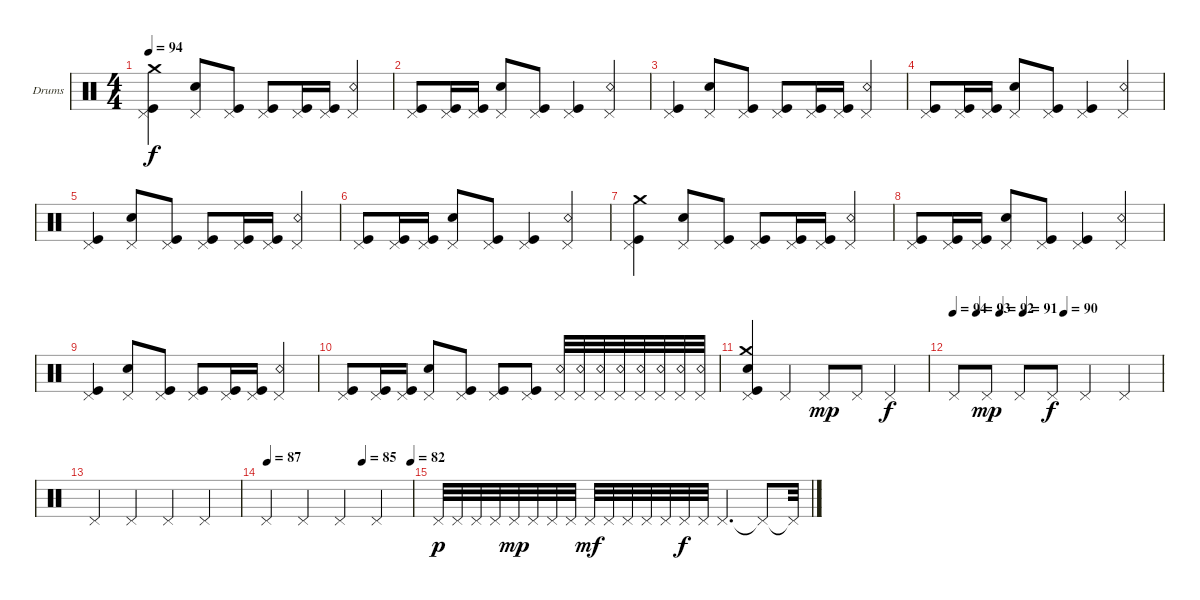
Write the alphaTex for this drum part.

\defaultSystemsLayout 4
\bracketExtendMode groupsimilarinstruments
\firstSystemTrackNameOrientation horizontal
\otherSystemsTrackNameOrientation horizontal
\track ("Е. Кулаков" "Drums") {instrument percussion}
\staff {score}
\articulation defaults
\ts (4 4)
\tempo 94
\clef neutral
\ks c
("Kick (hit)" "Pedal Hi-Hat (hit)" "Crash medium (hit)").4{dy f} ("Snare (hit) 2" "Pedal Hi-Hat (hit)").8 ("Kick (hit)" "Pedal Hi-Hat (hit)").8 ("Kick (hit)" "Pedal Hi-Hat (hit)").8 ("Kick (hit)" "Pedal Hi-Hat (hit)").16 ("Kick (hit)" "Pedal Hi-Hat (hit)").16 ("Snare (rim shot)" "Pedal Hi-Hat (hit)").4 |
("Kick (hit)" "Pedal Hi-Hat (hit)").8 ("Pedal Hi-Hat (hit)" "Kick (hit)").16 ("Pedal Hi-Hat (hit)" "Kick (hit)").16 ("Snare (hit) 2" "Pedal Hi-Hat (hit)").8 ("Kick (hit)" "Pedal Hi-Hat (hit)").8 ("Kick (hit)" "Pedal Hi-Hat (hit)").4 ("Snare (rim shot)" "Pedal Hi-Hat (hit)").4 |
("Kick (hit)" "Pedal Hi-Hat (hit)").4 ("Snare (hit) 2" "Pedal Hi-Hat (hit)").8 ("Kick (hit)" "Pedal Hi-Hat (hit)").8 ("Kick (hit)" "Pedal Hi-Hat (hit)").8 ("Kick (hit)" "Pedal Hi-Hat (hit)").16 ("Kick (hit)" "Pedal Hi-Hat (hit)").16 ("Snare (rim shot)" "Pedal Hi-Hat (hit)").4 |
("Kick (hit)" "Pedal Hi-Hat (hit)").8 ("Pedal Hi-Hat (hit)" "Kick (hit)").16 ("Pedal Hi-Hat (hit)" "Kick (hit)").16 ("Snare (hit) 2" "Pedal Hi-Hat (hit)").8 ("Kick (hit)" "Pedal Hi-Hat (hit)").8 ("Kick (hit)" "Pedal Hi-Hat (hit)").4 ("Snare (rim shot)" "Pedal Hi-Hat (hit)").4 |
("Kick (hit)" "Pedal Hi-Hat (hit)").4 ("Snare (hit) 2" "Pedal Hi-Hat (hit)").8 ("Kick (hit)" "Pedal Hi-Hat (hit)").8 ("Kick (hit)" "Pedal Hi-Hat (hit)").8 ("Kick (hit)" "Pedal Hi-Hat (hit)").16 ("Kick (hit)" "Pedal Hi-Hat (hit)").16 ("Snare (rim shot)" "Pedal Hi-Hat (hit)").4 |
("Kick (hit)" "Pedal Hi-Hat (hit)").8 ("Pedal Hi-Hat (hit)" "Kick (hit)").16 ("Pedal Hi-Hat (hit)" "Kick (hit)").16 ("Snare (hit) 2" "Pedal Hi-Hat (hit)").8 ("Kick (hit)" "Pedal Hi-Hat (hit)").8 ("Kick (hit)" "Pedal Hi-Hat (hit)").4 ("Snare (rim shot)" "Pedal Hi-Hat (hit)").4 |
("Kick (hit)" "Pedal Hi-Hat (hit)" "Crash medium (hit)").4 ("Snare (hit) 2" "Pedal Hi-Hat (hit)").8 ("Kick (hit)" "Pedal Hi-Hat (hit)").8 ("Kick (hit)" "Pedal Hi-Hat (hit)").8 ("Kick (hit)" "Pedal Hi-Hat (hit)").16 ("Kick (hit)" "Pedal Hi-Hat (hit)").16 ("Snare (rim shot)" "Pedal Hi-Hat (hit)").4 |
("Kick (hit)" "Pedal Hi-Hat (hit)").8 ("Pedal Hi-Hat (hit)" "Kick (hit)").16 ("Pedal Hi-Hat (hit)" "Kick (hit)").16 ("Snare (hit) 2" "Pedal Hi-Hat (hit)").8 ("Kick (hit)" "Pedal Hi-Hat (hit)").8 ("Kick (hit)" "Pedal Hi-Hat (hit)").4 ("Snare (rim shot)" "Pedal Hi-Hat (hit)").4 |
("Kick (hit)" "Pedal Hi-Hat (hit)").4 ("Snare (hit) 2" "Pedal Hi-Hat (hit)").8 ("Kick (hit)" "Pedal Hi-Hat (hit)").8 ("Kick (hit)" "Pedal Hi-Hat (hit)").8 ("Kick (hit)" "Pedal Hi-Hat (hit)").16 ("Kick (hit)" "Pedal Hi-Hat (hit)").16 ("Snare (rim shot)" "Pedal Hi-Hat (hit)").4 |
("Kick (hit)" "Pedal Hi-Hat (hit)").8 ("Pedal Hi-Hat (hit)" "Kick (hit)").16 ("Pedal Hi-Hat (hit)" "Kick (hit)").16 ("Snare (hit) 2" "Pedal Hi-Hat (hit)").8 ("Kick (hit)" "Pedal Hi-Hat (hit)").8 ("Kick (hit)" "Pedal Hi-Hat (hit)").8 ("Kick (hit)" "Pedal Hi-Hat (hit)").8 ("Snare (rim shot)" "Pedal Hi-Hat (hit)").32 ("Snare (rim shot)" "Pedal Hi-Hat (hit)").32 ("Snare (rim shot)" "Pedal Hi-Hat (hit)").32 ("Snare (rim shot)" "Pedal Hi-Hat (hit)").32 ("Snare (rim shot)" "Pedal Hi-Hat (hit)").32 ("Snare (rim shot)" "Pedal Hi-Hat (hit)").32 ("Snare (rim shot)" "Pedal Hi-Hat (hit)").32 ("Snare (rim shot)" "Pedal Hi-Hat (hit)").32 |
("Kick (hit)" "Snare (hit) 2" "Pedal Hi-Hat (hit)" "Crash medium (hit)").4 "Pedal Hi-Hat (hit)".4 "Pedal Hi-Hat (hit)".8{dy mp} "Pedal Hi-Hat (hit)".8 "Pedal Hi-Hat (hit)".4{dy f} |
\tempo 94
\tempo (93 0.1125)
\tempo (92 0.225)
\tempo (91 0.3375)
\tempo (90 0.53125)
"Pedal Hi-Hat (hit)".8 "Pedal Hi-Hat (hit)".8{dy mp} "Pedal Hi-Hat (hit)".8 "Pedal Hi-Hat (hit)".8{dy f} "Pedal Hi-Hat (hit)".4 "Pedal Hi-Hat (hit)".4 |
"Pedal Hi-Hat (hit)".4 "Pedal Hi-Hat (hit)".4 "Pedal Hi-Hat (hit)".4 "Pedal Hi-Hat (hit)".4 |
\tempo (87 0.0125)
\tempo (85 0.6625)
\tempo (82 0.99375)
"Pedal Hi-Hat (hit)".4 "Pedal Hi-Hat (hit)".4 "Pedal Hi-Hat (hit)".4 "Pedal Hi-Hat (hit)".4 |
"Pedal Hi-Hat (hit)".32{dy p} "Pedal Hi-Hat (hit)".32 "Pedal Hi-Hat (hit)".32 "Pedal Hi-Hat (hit)".32 "Pedal Hi-Hat (hit)".32{dy mp} "Pedal Hi-Hat (hit)".32 "Pedal Hi-Hat (hit)".32 "Pedal Hi-Hat (hit)".32 "Pedal Hi-Hat (hit)".32{dy mf} "Pedal Hi-Hat (hit)".32 "Pedal Hi-Hat (hit)".32 "Pedal Hi-Hat (hit)".32 "Pedal Hi-Hat (hit)".32 "Pedal Hi-Hat (hit)".32{dy f} "Pedal Hi-Hat (hit)".32 "Pedal Hi-Hat (hit)".4{d} "Pedal Hi-Hat (hit)"{t}.8 "Pedal Hi-Hat (hit)"{t}.32
